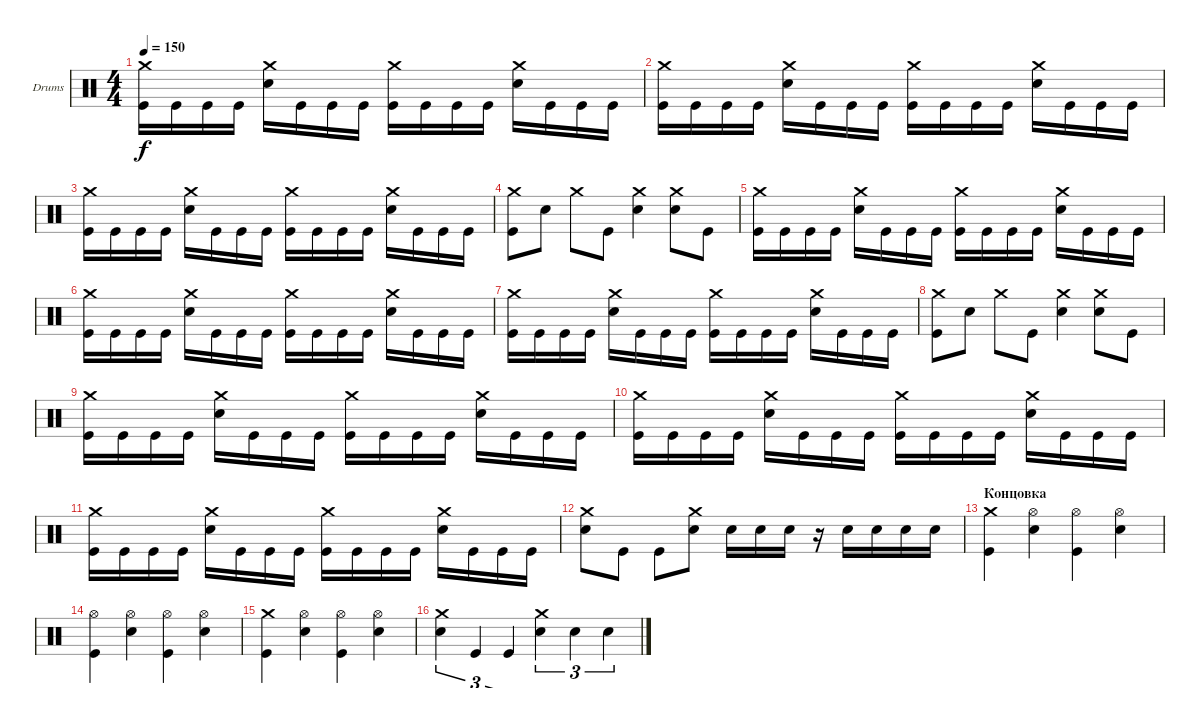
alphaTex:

\defaultSystemsLayout 4
\bracketExtendMode groupsimilarinstruments
\firstSystemTrackNameOrientation horizontal
\otherSystemsTrackNameOrientation horizontal
\track ("Drumkit" "Drums") {instrument percussion}
\staff {score}
\articulation defaults
\ts (4 4)
\tempo 150
\clef neutral
\ks c
("Kick (hit)" "Crash medium (hit)").16{dy f} "Kick (hit)".16 "Kick (hit)".16 "Kick (hit)".16 ("Snare (hit) 2" "Crash medium (hit)").16 "Kick (hit)".16 "Kick (hit)".16 "Kick (hit)".16 ("Kick (hit)" "Crash medium (hit)").16 "Kick (hit)".16 "Kick (hit)".16 "Kick (hit)".16 ("Snare (hit) 2" "Crash medium (hit)").16 "Kick (hit)".16 "Kick (hit)".16 "Kick (hit)".16 |
("Kick (hit)" "Crash medium (hit)").16 "Kick (hit)".16 "Kick (hit)".16 "Kick (hit)".16 ("Snare (hit) 2" "Crash medium (hit)").16 "Kick (hit)".16 "Kick (hit)".16 "Kick (hit)".16 ("Kick (hit)" "Crash medium (hit)").16 "Kick (hit)".16 "Kick (hit)".16 "Kick (hit)".16 ("Snare (hit) 2" "Crash medium (hit)").16 "Kick (hit)".16 "Kick (hit)".16 "Kick (hit)".16 |
("Kick (hit)" "Crash medium (hit)").16 "Kick (hit)".16 "Kick (hit)".16 "Kick (hit)".16 ("Snare (hit) 2" "Crash medium (hit)").16 "Kick (hit)".16 "Kick (hit)".16 "Kick (hit)".16 ("Kick (hit)" "Crash medium (hit)").16 "Kick (hit)".16 "Kick (hit)".16 "Kick (hit)".16 ("Snare (hit) 2" "Crash medium (hit)").16 "Kick (hit)".16 "Kick (hit)".16 "Kick (hit)".16 |
("Crash medium (hit)" "Kick (hit)").8 "Snare (hit) 2".8 "Crash medium (hit)".8 "Kick (hit)".8 ("Snare (hit) 2" "Crash medium (hit)").4 ("Snare (hit) 2" "Crash medium (hit)").8 "Kick (hit)".8 |
("Kick (hit)" "Crash medium (hit)").16 "Kick (hit)".16 "Kick (hit)".16 "Kick (hit)".16 ("Snare (hit) 2" "Crash medium (hit)").16 "Kick (hit)".16 "Kick (hit)".16 "Kick (hit)".16 ("Kick (hit)" "Crash medium (hit)").16 "Kick (hit)".16 "Kick (hit)".16 "Kick (hit)".16 ("Snare (hit) 2" "Crash medium (hit)").16 "Kick (hit)".16 "Kick (hit)".16 "Kick (hit)".16 |
("Kick (hit)" "Crash medium (hit)").16 "Kick (hit)".16 "Kick (hit)".16 "Kick (hit)".16 ("Snare (hit) 2" "Crash medium (hit)").16 "Kick (hit)".16 "Kick (hit)".16 "Kick (hit)".16 ("Kick (hit)" "Crash medium (hit)").16 "Kick (hit)".16 "Kick (hit)".16 "Kick (hit)".16 ("Snare (hit) 2" "Crash medium (hit)").16 "Kick (hit)".16 "Kick (hit)".16 "Kick (hit)".16 |
("Kick (hit)" "Crash medium (hit)").16 "Kick (hit)".16 "Kick (hit)".16 "Kick (hit)".16 ("Snare (hit) 2" "Crash medium (hit)").16 "Kick (hit)".16 "Kick (hit)".16 "Kick (hit)".16 ("Kick (hit)" "Crash medium (hit)").16 "Kick (hit)".16 "Kick (hit)".16 "Kick (hit)".16 ("Snare (hit) 2" "Crash medium (hit)").16 "Kick (hit)".16 "Kick (hit)".16 "Kick (hit)".16 |
("Crash medium (hit)" "Kick (hit)").8 "Snare (hit) 2".8 "Crash medium (hit)".8 "Kick (hit)".8 ("Snare (hit) 2" "Crash medium (hit)").4 ("Snare (hit) 2" "Crash medium (hit)").8 "Kick (hit)".8 |
("Kick (hit)" "Crash medium (hit)").16 "Kick (hit)".16 "Kick (hit)".16 "Kick (hit)".16 ("Snare (hit) 2" "Crash medium (hit)").16 "Kick (hit)".16 "Kick (hit)".16 "Kick (hit)".16 ("Kick (hit)" "Crash medium (hit)").16 "Kick (hit)".16 "Kick (hit)".16 "Kick (hit)".16 ("Snare (hit) 2" "Crash medium (hit)").16 "Kick (hit)".16 "Kick (hit)".16 "Kick (hit)".16 |
("Kick (hit)" "Crash medium (hit)").16 "Kick (hit)".16 "Kick (hit)".16 "Kick (hit)".16 ("Snare (hit) 2" "Crash medium (hit)").16 "Kick (hit)".16 "Kick (hit)".16 "Kick (hit)".16 ("Kick (hit)" "Crash medium (hit)").16 "Kick (hit)".16 "Kick (hit)".16 "Kick (hit)".16 ("Snare (hit) 2" "Crash medium (hit)").16 "Kick (hit)".16 "Kick (hit)".16 "Kick (hit)".16 |
("Kick (hit)" "Crash medium (hit)").16 "Kick (hit)".16 "Kick (hit)".16 "Kick (hit)".16 ("Snare (hit) 2" "Crash medium (hit)").16 "Kick (hit)".16 "Kick (hit)".16 "Kick (hit)".16 ("Kick (hit)" "Crash medium (hit)").16 "Kick (hit)".16 "Kick (hit)".16 "Kick (hit)".16 ("Snare (hit) 2" "Crash medium (hit)").16 "Kick (hit)".16 "Kick (hit)".16 "Kick (hit)".16 |
("Crash medium (hit)" "Snare (hit) 2").8 "Kick (hit)".8 "Kick (hit)".8 ("Snare (hit) 2" "Crash medium (hit)").8 "Snare (hit) 2".16 "Snare (hit) 2".16 "Snare (hit) 2".16 r.16 "Snare (hit) 2".16 "Snare (hit) 2".16 "Snare (hit) 2".16 "Snare (hit) 2".16 |
\section ("" "Концовка")
("Kick (hit)" "Crash medium (hit)").4 ("Hi-Hat (open)" "Snare (hit) 2").4 ("Hi-Hat (open)" "Kick (hit)").4 ("Hi-Hat (open)" "Snare (hit) 2").4 |
("Hi-Hat (open)" "Kick (hit)").4 ("Snare (hit) 2" "Hi-Hat (open)").4 ("Kick (hit)" "Hi-Hat (open)").4 ("Snare (hit) 2" "Hi-Hat (open)").4 |
("Kick (hit)" "Crash medium (hit)").4 ("Hi-Hat (open)" "Snare (hit) 2").4 ("Hi-Hat (open)" "Kick (hit)").4 ("Hi-Hat (open)" "Snare (hit) 2").4 |
("Crash medium (hit)" "Snare (hit) 2").4{tu (3 2)} "Kick (hit)".4{tu (3 2)} "Kick (hit)".4{tu (3 2)} ("Crash medium (hit)" "Snare (hit) 2").4{tu (3 2)} "Snare (hit) 2".4{tu (3 2)} "Snare (hit) 2".4{tu (3 2)}
